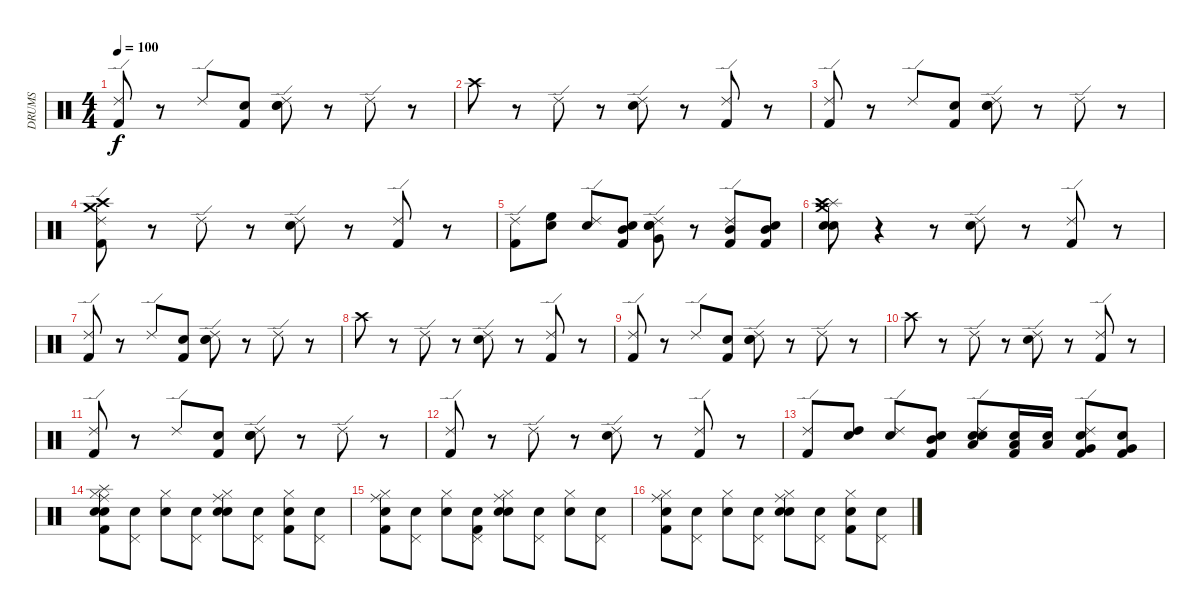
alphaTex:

\track ("DRUMS" "DRUMS") {instrument percussion}
\staff {score}
\articulation defaults
\ts (4 4)
\tempo 100
\clef neutral
\ks c
("Kick (hit) 2" "Ride (edge) 2").8{dy f} r.8 "Ride (edge) 2".8 ("Snare (hit)" "Kick (hit) 2").8 ("Snare (hit)" "Snare (hit) 2" "Ride (edge) 2").8 r.8 "Ride (edge) 2".8 r.8 |
"Crash high (hit)".8 r.8 "Ride (edge) 2".8 r.8 ("Snare (hit) 2" "Ride (edge) 2").8 r.8 ("Kick (hit) 2" "Ride (edge) 2").8 r.8 |
("Ride (edge) 2" "Kick (hit) 2").8 r.8 "Ride (edge) 2".8 ("Snare (hit)" "Kick (hit) 2").8 ("Snare (hit)" "Ride (edge) 2" "Snare (hit) 2").8 r.8 "Ride (edge) 2".8 r.8 |
("Crash high (hit)" "Crash medium (hit)" "Kick (hit) 2" "Ride (edge) 2").8 r.8 "Ride (edge) 2".8 r.8 ("Snare (hit) 2" "Ride (edge) 2").8 r.8 ("Kick (hit) 2" "Ride (edge) 2").8 r.8 |
("Kick (hit) 2" "Ride (edge) 2").8 ("Snare (hit)" "High Floor Tom (hit)").8 ("Snare (hit)" "Ride (edge) 2").8 ("Snare (hit)" "Mid Tom (hit)" "Kick (hit) 2").8 ("Snare (hit)" "Very Low Tom (hit)" "Snare (hit) 2" "Ride (edge) 2").8 r.8 ("Mid Tom (hit)" "Kick (hit) 2" "Ride (edge) 2").8 ("Snare (hit)" "Mid Tom (hit)" "Kick (hit) 2").8 |
("Snare (hit)" "Snare (hit) 2" "Crash medium (hit)" "Splash (hit)" "Crash high (hit)").8 r.4 r.8 ("Snare (hit) 2" "Ride (edge) 2").8 r.8 ("Kick (hit) 2" "Ride (edge) 2").8 r.8 |
("Kick (hit) 2" "Ride (edge) 2").8 r.8 "Ride (edge) 2".8 ("Snare (hit)" "Kick (hit) 2").8 ("Snare (hit)" "Snare (hit) 2" "Ride (edge) 2").8 r.8 "Ride (edge) 2".8 r.8 |
"Crash high (hit)".8 r.8 "Ride (edge) 2".8 r.8 ("Snare (hit) 2" "Ride (edge) 2").8 r.8 ("Kick (hit) 2" "Ride (edge) 2").8 r.8 |
("Kick (hit) 2" "Ride (edge) 2").8 r.8 "Ride (edge) 2".8 ("Snare (hit)" "Kick (hit) 2").8 ("Snare (hit)" "Snare (hit) 2" "Ride (edge) 2").8 r.8 "Ride (edge) 2".8 r.8 |
"Crash high (hit)".8 r.8 "Ride (edge) 2".8 r.8 ("Snare (hit) 2" "Ride (edge) 2").8 r.8 ("Kick (hit) 2" "Ride (edge) 2").8 r.8 |
("Ride (edge) 2" "Kick (hit) 2").8 r.8 "Ride (edge) 2".8 ("Snare (hit)" "Kick (hit) 2").8 ("Snare (hit)" "Ride (edge) 2" "Snare (hit) 2").8 r.8 "Ride (edge) 2".8 r.8 |
("Kick (hit) 2" "Ride (edge) 2").8 r.8 "Ride (edge) 2".8 r.8 ("Snare (hit) 2" "Ride (edge) 2").8 r.8 ("Kick (hit) 2" "Ride (edge) 2").8 r.8 |
("Kick (hit) 2" "Ride (edge) 2").8 ("Snare (hit)" "High Tom (hit)").8 ("Snare (hit)" "Ride (edge) 2").8 ("Snare (hit)" "Mid Tom (hit)" "Kick (hit) 2").8 ("Snare (hit)" "Low Tom (hit)" "Snare (hit) 2" "Ride (edge) 2").8 ("Snare (hit)" "Low Tom (hit)" "Kick (hit) 2").16 ("Snare (hit)" "Low Tom (hit)").16 ("Snare (hit)" "Very Low Tom (hit)" "Kick (hit) 2" "Ride (edge) 2").8 ("Snare (hit)" "Very Low Tom (hit)" "Kick (hit) 2").8 |
("Snare (hit)" "Ride (middle)" "Hi-Hat (closed)" "Kick (hit) 2" "Snare (hit) 2" "Splash (hit)").8 ("Snare (hit)" "Pedal Hi-Hat (hit)").8 ("Snare (hit)" "Hi-Hat (closed)").8 ("Snare (hit)" "Pedal Hi-Hat (hit)").8 ("Snare (hit)" "Ride (middle)" "Hi-Hat (closed)" "Snare (hit) 2").8 ("Snare (hit)" "Pedal Hi-Hat (hit)").8 ("Snare (hit)" "Hi-Hat (closed)" "Kick (hit) 2").8 ("Snare (hit)" "Pedal Hi-Hat (hit)").8 |
("Snare (hit)" "Ride (middle)" "Hi-Hat (closed)" "Kick (hit) 2").8 ("Snare (hit)" "Pedal Hi-Hat (hit)").8 ("Snare (hit)" "Hi-Hat (closed)").8 ("Snare (hit)" "Pedal Hi-Hat (hit)" "Kick (hit) 2").8 ("Snare (hit)" "Ride (middle)" "Hi-Hat (closed)" "Snare (hit) 2").8 ("Snare (hit)" "Pedal Hi-Hat (hit)").8 ("Snare (hit)" "Hi-Hat (closed)").8 ("Snare (hit)" "Pedal Hi-Hat (hit)").8 |
("Snare (hit)" "Kick (hit) 2" "Ride (middle)" "Hi-Hat (closed)").8 ("Snare (hit)" "Pedal Hi-Hat (hit)").8 ("Snare (hit)" "Hi-Hat (closed)").8 ("Snare (hit)" "Pedal Hi-Hat (hit)").8 ("Snare (hit)" "Ride (middle)" "Hi-Hat (closed)" "Snare (hit) 2").8 ("Snare (hit)" "Pedal Hi-Hat (hit)").8 ("Snare (hit)" "Hi-Hat (closed)" "Kick (hit) 2").8 ("Snare (hit)" "Pedal Hi-Hat (hit)").8
